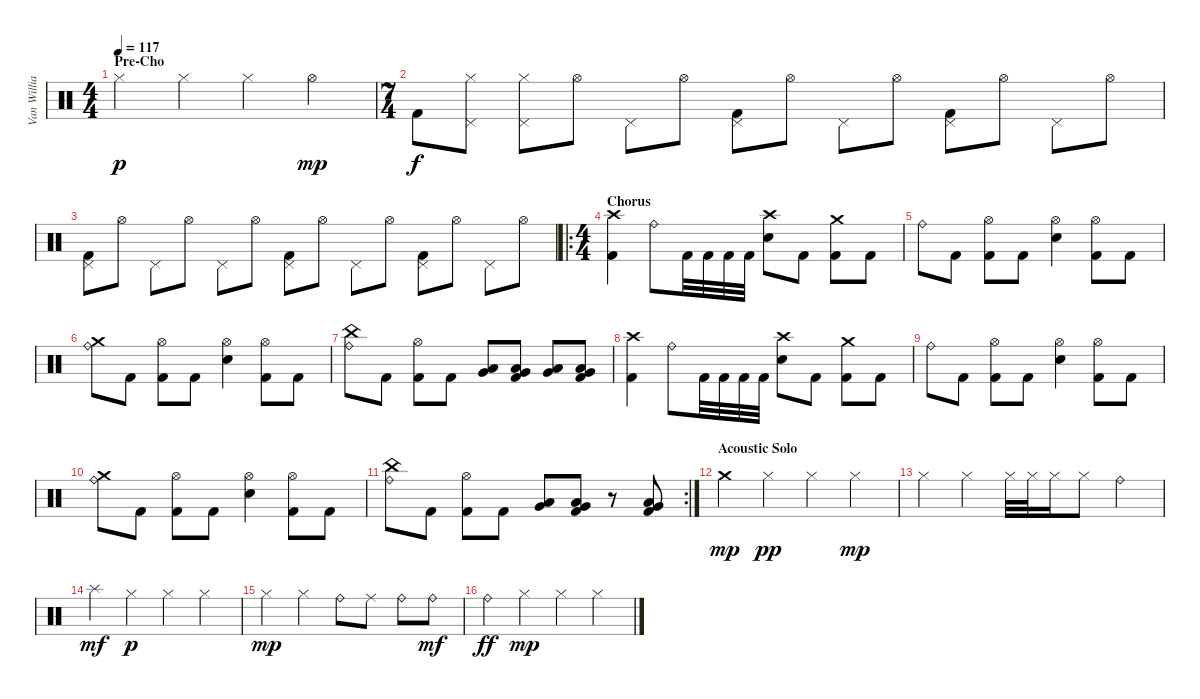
\track ("Van Williams" "Van Willia") {instrument percussion}
\staff {score}
\articulation defaults
\ts (4 4)
\section ("" "Pre-Cho")
\tempo 117
\clef neutral
\ks c "Hi-Hat (closed)".4{dy p} "Hi-Hat (closed)".4 "Hi-Hat (closed)".4 "Hi-Hat (open)".4{dy mp}
|
\ts (7 4)
"Kick (hit) 2".8{dy f} ("Hi-Hat (closed)" "Pedal Hi-Hat (hit)").8 ("Hi-Hat (closed)" "Pedal Hi-Hat (hit)").8 "Hi-Hat (open)".8 "Pedal Hi-Hat (hit)".8 "Hi-Hat (open)".8 ("Pedal Hi-Hat (hit)" "Kick (hit) 2").8 "Hi-Hat (open)".8 "Pedal Hi-Hat (hit)".8 "Hi-Hat (open)".8 ("Pedal Hi-Hat (hit)" "Kick (hit) 2").8 "Hi-Hat (open)".8 "Pedal Hi-Hat (hit)".8 "Hi-Hat (open)".8 |
("Pedal Hi-Hat (hit)" "Kick (hit) 2").8 "Hi-Hat (open)".8 "Pedal Hi-Hat (hit)".8 "Hi-Hat (open)".8 "Pedal Hi-Hat (hit)".8 "Hi-Hat (open)".8 ("Pedal Hi-Hat (hit)" "Kick (hit) 2").8 "Hi-Hat (open)".8 "Pedal Hi-Hat (hit)".8 "Hi-Hat (open)".8 ("Pedal Hi-Hat (hit)" "Kick (hit) 2").8 "Hi-Hat (open)".8 "Pedal Hi-Hat (hit)".8 "Hi-Hat (open)".8 |
\ro
\ts (4 4)
\section ("" "Chorus")
("Crash high (hit)" "Kick (hit) 2").4 "Ride (bell)".8 "Kick (hit) 2".32 "Kick (hit) 2".32 "Kick (hit) 2".32 "Kick (hit) 2".32 ("Crash high (hit)" "Electric Snare (hit)").8 "Kick (hit) 2".8 ("Crash medium (hit)" "Kick (hit) 2").8 "Kick (hit) 2".8 |
"Ride (bell)".8 "Kick (hit) 2".8 ("Hi-Hat (open)" "Kick (hit) 2").8 "Kick (hit) 2".8 ("Hi-Hat (open)" "Electric Snare (hit)").4 ("Hi-Hat (open)" "Kick (hit) 2").8 "Kick (hit) 2".8 |
("Ride (bell)" "Crash medium (hit)").8 "Kick (hit) 2".8 ("Hi-Hat (open)" "Kick (hit) 2").8 "Kick (hit) 2".8 ("Hi-Hat (open)" "Electric Snare (hit)").4 ("Hi-Hat (open)" "Kick (hit) 2").8 "Kick (hit) 2".8 |
("Ride (bell)" "China (hit)").8 "Kick (hit) 2".8 ("Hi-Hat (open)" "Kick (hit) 2").8 "Kick (hit) 2".8 ("Low Floor Tom (hit)" "Very Low Tom (hit)").8 ("Low Floor Tom (hit)" "Very Low Tom (hit)" "Kick (hit) 2").8 ("Low Floor Tom (hit)" "Very Low Tom (hit)").8 ("Low Floor Tom (hit)" "Very Low Tom (hit)" "Kick (hit) 2").8 |
("Crash high (hit)" "Kick (hit) 2").4 "Ride (bell)".8 "Kick (hit) 2".32 "Kick (hit) 2".32 "Kick (hit) 2".32 "Kick (hit) 2".32 ("Crash high (hit)" "Electric Snare (hit)").8 "Kick (hit) 2".8 ("Crash medium (hit)" "Kick (hit) 2").8 "Kick (hit) 2".8 |
"Ride (bell)".8 "Kick (hit) 2".8 ("Hi-Hat (open)" "Kick (hit) 2").8 "Kick (hit) 2".8 ("Hi-Hat (open)" "Electric Snare (hit)").4 ("Hi-Hat (open)" "Kick (hit) 2").8 "Kick (hit) 2".8 |
("Ride (bell)" "Crash medium (hit)").8 "Kick (hit) 2".8 ("Hi-Hat (open)" "Kick (hit) 2").8 "Kick (hit) 2".8 ("Hi-Hat (open)" "Electric Snare (hit)").4 ("Hi-Hat (open)" "Kick (hit) 2").8 "Kick (hit) 2".8 |
\rc 2
("Ride (bell)" "China (hit)").8 "Kick (hit) 2".8 ("Hi-Hat (open)" "Kick (hit) 2").8 "Kick (hit) 2".8 ("Low Floor Tom (hit)" "Very Low Tom (hit)").8 ("Low Floor Tom (hit)" "Very Low Tom (hit)" "Kick (hit) 2").8 r.8 ("Low Floor Tom (hit)" "Very Low Tom (hit)" "Kick (hit) 2").8 |
\section ("" "Acoustic Solo")
"Crash medium (hit)".4{dy mp} "Hi-Hat (closed)".4{dy pp} "Hi-Hat (closed)".4 "Hi-Hat (closed)".4{dy mp} |
"Hi-Hat (closed)".4 "Hi-Hat (closed)".4 "Hi-Hat (closed)".32 "Hi-Hat (closed)".32 "Hi-Hat (closed)".16 "Hi-Hat (closed)".8 "Ride (bell)".4 |
"Splash (hit)".4{dy mf} "Hi-Hat (closed)".4{dy p} "Hi-Hat (closed)".4 "Hi-Hat (closed)".4 |
"Hi-Hat (closed)".4{dy mp} "Hi-Hat (closed)".4 "Ride (bell)".8 "Ride (middle)".8 "Ride (bell)".8 "Ride (bell)".8{dy mf} |
"Ride (bell)".4{dy ff} "Hi-Hat (closed)".4{dy mp} "Hi-Hat (closed)".4 "Hi-Hat (closed)".4
